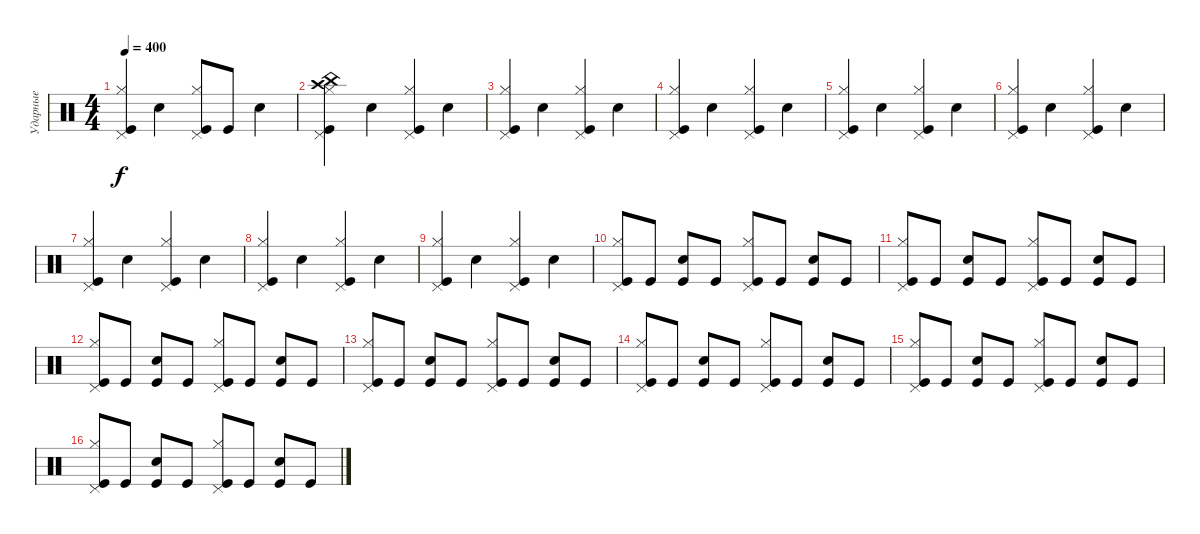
\track ("Ударные" "Ударные") {instrument percussion}
\staff {score}
\articulation defaults
\ts (4 4)
\tempo 400
\clef neutral
\ks c
("Kick (hit)" "Hi-Hat (closed)" "Pedal Hi-Hat (hit)").4{dy f} "Electric Snare (hit)".4 ("Kick (hit)" "Pedal Hi-Hat (hit)" "Hi-Hat (closed)").8 "Kick (hit)".8 "Electric Snare (hit)".4 |
("Kick (hit)" "Hi-Hat (closed)" "Pedal Hi-Hat (hit)" "Crash high (hit)" "China (hit)").4 "Electric Snare (hit)".4 ("Kick (hit)" "Pedal Hi-Hat (hit)" "Hi-Hat (closed)").4 "Electric Snare (hit)".4 |
("Kick (hit)" "Hi-Hat (closed)" "Pedal Hi-Hat (hit)").4 "Electric Snare (hit)".4 ("Kick (hit)" "Pedal Hi-Hat (hit)" "Hi-Hat (closed)").4 "Electric Snare (hit)".4 |
("Kick (hit)" "Hi-Hat (closed)" "Pedal Hi-Hat (hit)").4 "Electric Snare (hit)".4 ("Kick (hit)" "Pedal Hi-Hat (hit)" "Hi-Hat (closed)").4 "Electric Snare (hit)".4 |
("Kick (hit)" "Hi-Hat (closed)" "Pedal Hi-Hat (hit)").4 "Electric Snare (hit)".4 ("Kick (hit)" "Pedal Hi-Hat (hit)" "Hi-Hat (closed)").4 "Electric Snare (hit)".4 |
("Kick (hit)" "Hi-Hat (closed)" "Pedal Hi-Hat (hit)").4 "Electric Snare (hit)".4 ("Kick (hit)" "Pedal Hi-Hat (hit)" "Hi-Hat (closed)").4 "Electric Snare (hit)".4 |
("Kick (hit)" "Hi-Hat (closed)" "Pedal Hi-Hat (hit)").4 "Electric Snare (hit)".4 ("Kick (hit)" "Pedal Hi-Hat (hit)" "Hi-Hat (closed)").4 "Electric Snare (hit)".4 |
("Kick (hit)" "Hi-Hat (closed)" "Pedal Hi-Hat (hit)").4 "Electric Snare (hit)".4 ("Kick (hit)" "Pedal Hi-Hat (hit)" "Hi-Hat (closed)").4 "Electric Snare (hit)".4 |
("Kick (hit)" "Hi-Hat (closed)" "Pedal Hi-Hat (hit)").4 "Electric Snare (hit)".4 ("Kick (hit)" "Pedal Hi-Hat (hit)" "Hi-Hat (closed)").4 "Electric Snare (hit)".4 |
("Kick (hit)" "Pedal Hi-Hat (hit)" "Hi-Hat (closed)").8 "Kick (hit)".8 ("Kick (hit)" "Electric Snare (hit)").8 "Kick (hit)".8 ("Kick (hit)" "Hi-Hat (closed)" "Pedal Hi-Hat (hit)").8 "Kick (hit)".8 ("Kick (hit)" "Electric Snare (hit)").8 "Kick (hit)".8 |
("Kick (hit)" "Pedal Hi-Hat (hit)" "Hi-Hat (closed)").8 "Kick (hit)".8 ("Kick (hit)" "Electric Snare (hit)").8 "Kick (hit)".8 ("Kick (hit)" "Hi-Hat (closed)" "Pedal Hi-Hat (hit)").8 "Kick (hit)".8 ("Kick (hit)" "Electric Snare (hit)").8 "Kick (hit)".8 |
("Kick (hit)" "Pedal Hi-Hat (hit)" "Hi-Hat (closed)").8 "Kick (hit)".8 ("Kick (hit)" "Electric Snare (hit)").8 "Kick (hit)".8 ("Kick (hit)" "Hi-Hat (closed)" "Pedal Hi-Hat (hit)").8 "Kick (hit)".8 ("Kick (hit)" "Electric Snare (hit)").8 "Kick (hit)".8 |
("Kick (hit)" "Pedal Hi-Hat (hit)" "Hi-Hat (closed)").8 "Kick (hit)".8 ("Kick (hit)" "Electric Snare (hit)").8 "Kick (hit)".8 ("Kick (hit)" "Hi-Hat (closed)" "Pedal Hi-Hat (hit)").8 "Kick (hit)".8 ("Kick (hit)" "Electric Snare (hit)").8 "Kick (hit)".8 |
("Kick (hit)" "Pedal Hi-Hat (hit)" "Hi-Hat (closed)").8 "Kick (hit)".8 ("Kick (hit)" "Electric Snare (hit)").8 "Kick (hit)".8 ("Kick (hit)" "Hi-Hat (closed)" "Pedal Hi-Hat (hit)").8 "Kick (hit)".8 ("Kick (hit)" "Electric Snare (hit)").8 "Kick (hit)".8 |
("Kick (hit)" "Pedal Hi-Hat (hit)" "Hi-Hat (closed)").8 "Kick (hit)".8 ("Kick (hit)" "Electric Snare (hit)").8 "Kick (hit)".8 ("Kick (hit)" "Hi-Hat (closed)" "Pedal Hi-Hat (hit)").8 "Kick (hit)".8 ("Kick (hit)" "Electric Snare (hit)").8 "Kick (hit)".8 |
("Kick (hit)" "Pedal Hi-Hat (hit)" "Hi-Hat (closed)").8 "Kick (hit)".8 ("Kick (hit)" "Electric Snare (hit)").8 "Kick (hit)".8 ("Kick (hit)" "Hi-Hat (closed)" "Pedal Hi-Hat (hit)").8 "Kick (hit)".8 ("Kick (hit)" "Electric Snare (hit)").8 "Kick (hit)".8
